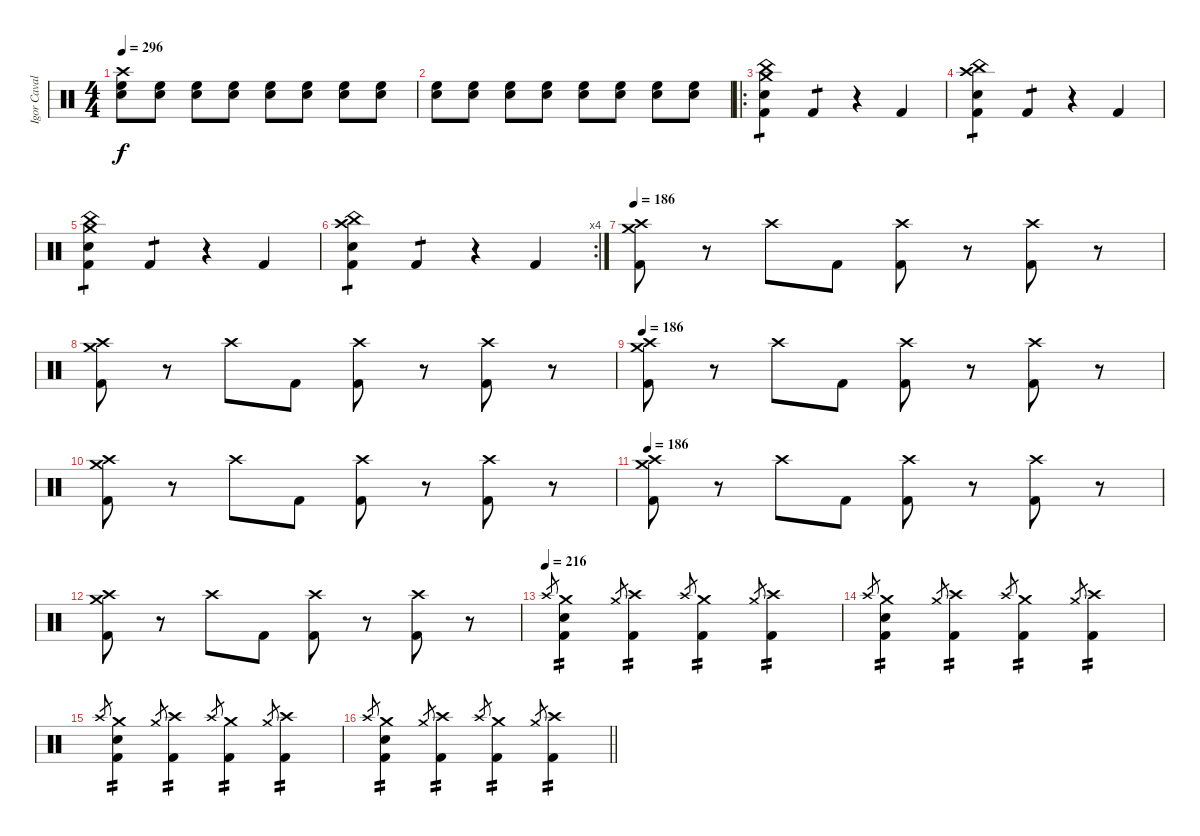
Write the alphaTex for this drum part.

\track ("Igor Cavalera" "Igor Caval") {instrument percussion}
\staff {score}
\articulation defaults
\ts (4 4)
\tempo 296
\clef neutral
\ks c
("Crash high (hit)" "High Floor Tom (hit)" "Electric Snare (hit)").8{dy f} ("High Floor Tom (hit)" "Electric Snare (hit)").8 ("High Floor Tom (hit)" "Electric Snare (hit)").8 ("High Floor Tom (hit)" "Electric Snare (hit)").8 ("High Floor Tom (hit)" "Electric Snare (hit)").8 ("High Floor Tom (hit)" "Electric Snare (hit)").8 ("High Floor Tom (hit)" "Electric Snare (hit)").8 ("High Floor Tom (hit)" "Electric Snare (hit)").8 |
("High Floor Tom (hit)" "Electric Snare (hit)").8 ("High Floor Tom (hit)" "Electric Snare (hit)").8 ("High Floor Tom (hit)" "Electric Snare (hit)").8 ("High Floor Tom (hit)" "Electric Snare (hit)").8 ("High Floor Tom (hit)" "Electric Snare (hit)").8 ("High Floor Tom (hit)" "Electric Snare (hit)").8 ("High Floor Tom (hit)" "Electric Snare (hit)").8 ("High Floor Tom (hit)" "Electric Snare (hit)").8 |
\ro
("Crash medium (hit)" "China (hit)" "Snare (hit) 2" "Kick (hit) 2").4{tp 1} "Kick (hit) 2".4{tp 1} r.4 "Kick (hit) 2".4 |
("Crash high (hit)" "China (hit)" "Snare (hit) 2" "Kick (hit) 2").4{tp 1} "Kick (hit) 2".4{tp 1} r.4 "Kick (hit) 2".4 |
("Crash medium (hit)" "China (hit)" "Snare (hit) 2" "Kick (hit) 2").4{tp 1} "Kick (hit) 2".4{tp 1} r.4 "Kick (hit) 2".4 |
\rc 4
("Crash high (hit)" "China (hit)" "Snare (hit) 2" "Kick (hit) 2").4{tp 1} "Kick (hit) 2".4{tp 1} r.4 "Kick (hit) 2".4 |
\tempo 186
("Crash medium (hit)" "Crash high (hit)" "Kick (hit) 2").8 r.8 "Crash high (hit)".8 "Kick (hit) 2".8 ("Crash high (hit)" "Kick (hit) 2").8 r.8 ("Crash high (hit)" "Kick (hit) 2").8 r.8 |
("Crash medium (hit)" "Crash high (hit)" "Kick (hit) 2").8 r.8 "Crash high (hit)".8 "Kick (hit) 2".8 ("Crash high (hit)" "Kick (hit) 2").8 r.8 ("Crash high (hit)" "Kick (hit) 2").8 r.8 |
\tempo 186
("Crash medium (hit)" "Crash high (hit)" "Kick (hit) 2").8 r.8 "Crash high (hit)".8 "Kick (hit) 2".8 ("Crash high (hit)" "Kick (hit) 2").8 r.8 ("Crash high (hit)" "Kick (hit) 2").8 r.8 |
("Crash medium (hit)" "Crash high (hit)" "Kick (hit) 2").8 r.8 "Crash high (hit)".8 "Kick (hit) 2".8 ("Crash high (hit)" "Kick (hit) 2").8 r.8 ("Crash high (hit)" "Kick (hit) 2").8 r.8 |
\tempo 186
("Crash medium (hit)" "Crash high (hit)" "Kick (hit) 2").8 r.8 "Crash high (hit)".8 "Kick (hit) 2".8 ("Crash high (hit)" "Kick (hit) 2").8 r.8 ("Crash high (hit)" "Kick (hit) 2").8 r.8 |
("Crash medium (hit)" "Crash high (hit)" "Kick (hit) 2").8 r.8 "Crash high (hit)".8 "Kick (hit) 2".8 ("Crash high (hit)" "Kick (hit) 2").8 r.8 ("Crash high (hit)" "Kick (hit) 2").8 r.8 |
\tempo (216)
"Crash high (hit)".8{gr} ("Crash medium (hit)" "Snare (hit) 2" "Kick (hit) 2").4{tp 2} "Crash medium (hit)".8{gr} ("Crash high (hit)" "Kick (hit) 2").4{tp 2} "Crash high (hit)".8{gr} ("Crash medium (hit)" "Kick (hit) 2").4{tp 2} "Crash medium (hit)".8{gr} ("Crash high (hit)" "Kick (hit) 2").4{tp 2} |
"Crash high (hit)".8{gr} ("Crash medium (hit)" "Snare (hit) 2" "Kick (hit) 2").4{tp 2} "Crash medium (hit)".8{gr} ("Crash high (hit)" "Kick (hit) 2").4{tp 2} "Crash high (hit)".8{gr} ("Crash medium (hit)" "Kick (hit) 2").4{tp 2} "Crash medium (hit)".8{gr} ("Crash high (hit)" "Kick (hit) 2").4{tp 2} |
"Crash high (hit)".8{gr} ("Crash medium (hit)" "Snare (hit) 2" "Kick (hit) 2").4{tp 2} "Crash medium (hit)".8{gr} ("Crash high (hit)" "Kick (hit) 2").4{tp 2} "Crash high (hit)".8{gr} ("Crash medium (hit)" "Kick (hit) 2").4{tp 2} "Crash medium (hit)".8{gr} ("Crash high (hit)" "Kick (hit) 2").4{tp 2} |
\barLineRight lightlight "Crash high (hit)".8{gr}
("Crash medium (hit)" "Snare (hit) 2" "Kick (hit) 2").4{tp 2} "Crash medium (hit)".8{gr} ("Crash high (hit)" "Kick (hit) 2").4{tp 2} "Crash high (hit)".8{gr} ("Crash medium (hit)" "Kick (hit) 2").4{tp 2} "Crash medium (hit)".8{gr} ("Crash high (hit)" "Kick (hit) 2").4{tp 2}
